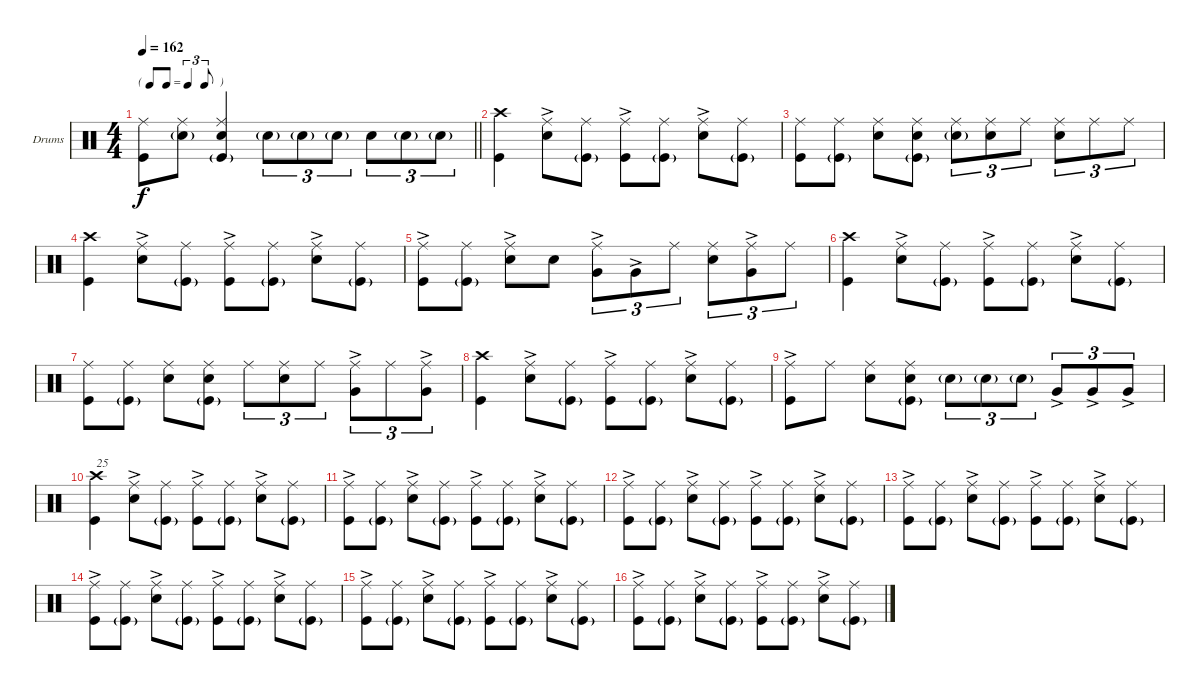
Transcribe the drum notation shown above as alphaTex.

\bracketExtendMode groupsimilarinstruments
\firstSystemTrackNameOrientation horizontal
\otherSystemsTrackNameOrientation horizontal
\track ("Drumkit" "Drums") {instrument percussion}
\staff {score}
\articulation defaults
\ts (4 4)
\tf triplet8th
\tempo 162
\clef neutral
\barLineRight lightlight
\ks c
("Kick (hit)" "Ride (middle)").8{dy f} ("Ride (middle)" "Snare (hit) 2"{g}).8 ("Snare (hit) 2" "Ride (middle)" "Kick (hit)"{g}).4 "Snare (hit) 2"{g}.8{tu (3 2)} "Snare (hit) 2"{g}.8{tu (3 2)} "Snare (hit) 2"{g}.8{tu (3 2)} "Snare (hit) 2".8{tu (3 2)} "Snare (hit) 2"{g}.8{tu (3 2)} "Snare (hit) 2"{g}.8{tu (3 2)} |
("Kick (hit)" "Crash high (hit)").4 ("Snare (hit) 2" "Ride (middle)"{ac}).8 ("Kick (hit)"{g} "Ride (middle)").8 ("Kick (hit)" "Ride (middle)"{ac}).8 ("Kick (hit)"{g} "Ride (middle)").8 ("Snare (hit) 2" "Ride (middle)"{ac}).8 ("Kick (hit)"{g} "Ride (middle)").8 |
("Kick (hit)" "Ride (middle)").8 ("Kick (hit)"{g} "Ride (middle)").8 ("Snare (hit) 2" "Ride (middle)").8 ("Kick (hit)"{g} "Ride (middle)" "Snare (hit) 2").8 ("Ride (middle)" "Snare (hit) 2"{g}).8{tu (3 2)} ("Ride (middle)" "Snare (hit) 2").8{tu (3 2)} "Ride (middle)".8{tu (3 2)} ("Snare (hit) 2" "Ride (middle)").8{tu (3 2)} "Ride (middle)".8{tu (3 2)} "Ride (middle)".8{tu (3 2)} |
("Kick (hit)" "Crash high (hit)").4 ("Snare (hit) 2" "Ride (middle)"{ac}).8 ("Kick (hit)"{g} "Ride (middle)").8 ("Kick (hit)" "Ride (middle)"{ac}).8 ("Kick (hit)"{g} "Ride (middle)").8 ("Snare (hit) 2" "Ride (middle)"{ac}).8 ("Kick (hit)"{g} "Ride (middle)").8 |
("Kick (hit)" "Ride (middle)"{ac}).8 ("Kick (hit)"{g} "Ride (middle)").8 ("Snare (hit) 2" "Ride (middle)"{ac}).8 "Snare (hit) 2".8 ("Ride (middle)" "Very Low Tom (hit)"{ac}).8{tu (3 2)} "Very Low Tom (hit)"{ac}.8{tu (3 2)} "Ride (middle)".8{tu (3 2)} ("Snare (hit) 2" "Ride (middle)").8{tu (3 2)} ("Ride (middle)" "Very Low Tom (hit)"{ac}).8{tu (3 2)} "Ride (middle)".8{tu (3 2)} |
("Kick (hit)" "Crash high (hit)").4 ("Snare (hit) 2" "Ride (middle)"{ac}).8 ("Kick (hit)"{g} "Ride (middle)").8 ("Kick (hit)" "Ride (middle)"{ac}).8 ("Kick (hit)"{g} "Ride (middle)").8 ("Snare (hit) 2" "Ride (middle)"{ac}).8 ("Kick (hit)"{g} "Ride (middle)").8 |
("Kick (hit)" "Ride (middle)").8 ("Kick (hit)"{g} "Ride (middle)").8 ("Snare (hit) 2" "Ride (middle)").8 ("Kick (hit)"{g} "Ride (middle)" "Snare (hit) 2").8 "Ride (middle)".8{tu (3 2)} ("Ride (middle)" "Snare (hit) 2").8{tu (3 2)} "Ride (middle)".8{tu (3 2)} ("Ride (middle)" "Very Low Tom (hit)"{ac}).8{tu (3 2)} "Ride (middle)".8{tu (3 2)} ("Ride (middle)" "Very Low Tom (hit)"{ac}).8{tu (3 2)} |
("Kick (hit)" "Crash high (hit)").4 ("Snare (hit) 2" "Ride (middle)"{ac}).8 ("Kick (hit)"{g} "Ride (middle)").8 ("Kick (hit)" "Ride (middle)"{ac}).8 ("Kick (hit)"{g} "Ride (middle)").8 ("Snare (hit) 2" "Ride (middle)"{ac}).8 ("Kick (hit)"{g} "Ride (middle)").8 |
("Kick (hit)" "Ride (middle)"{ac}).8 "Ride (middle)".8 ("Snare (hit) 2" "Ride (middle)").8 ("Kick (hit)"{g} "Ride (middle)" "Snare (hit) 2").8 "Snare (hit) 2"{g}.8{tu (3 2)} "Snare (hit) 2"{g}.8{tu (3 2)} "Snare (hit) 2"{g}.8{tu (3 2)} "Very Low Tom (hit)"{ac}.8{tu (3 2)} "Very Low Tom (hit)"{ac}.8{tu (3 2)} "Very Low Tom (hit)"{ac}.8{tu (3 2)} |
("Kick (hit)" "Crash high (hit)").4{txt "25"} ("Snare (hit) 2" "Ride (middle)"{ac}).8 ("Kick (hit)"{g} "Ride (middle)").8 ("Kick (hit)" "Ride (middle)"{ac}).8 ("Kick (hit)"{g} "Ride (middle)").8 ("Snare (hit) 2" "Ride (middle)"{ac}).8 ("Kick (hit)"{g} "Ride (middle)").8 |
("Kick (hit)" "Ride (middle)"{ac}).8 ("Kick (hit)"{g} "Ride (middle)").8 ("Snare (hit) 2" "Ride (middle)"{ac}).8 ("Kick (hit)"{g} "Ride (middle)").8 ("Kick (hit)" "Ride (middle)"{ac}).8 ("Kick (hit)"{g} "Ride (middle)").8 ("Snare (hit) 2" "Ride (middle)"{ac}).8 ("Kick (hit)"{g} "Ride (middle)").8 |
("Kick (hit)" "Ride (middle)"{ac}).8 ("Kick (hit)"{g} "Ride (middle)").8 ("Snare (hit) 2" "Ride (middle)"{ac}).8 ("Kick (hit)"{g} "Ride (middle)").8 ("Kick (hit)" "Ride (middle)"{ac}).8 ("Kick (hit)"{g} "Ride (middle)").8 ("Snare (hit) 2" "Ride (middle)"{ac}).8 ("Kick (hit)"{g} "Ride (middle)").8 |
("Kick (hit)" "Ride (middle)"{ac}).8 ("Kick (hit)"{g} "Ride (middle)").8 ("Snare (hit) 2" "Ride (middle)"{ac}).8 ("Kick (hit)"{g} "Ride (middle)").8 ("Kick (hit)" "Ride (middle)"{ac}).8 ("Kick (hit)"{g} "Ride (middle)").8 ("Snare (hit) 2" "Ride (middle)"{ac}).8 ("Kick (hit)"{g} "Ride (middle)").8 |
("Kick (hit)" "Ride (middle)"{ac}).8 ("Kick (hit)"{g} "Ride (middle)").8 ("Snare (hit) 2" "Ride (middle)"{ac}).8 ("Kick (hit)"{g} "Ride (middle)").8 ("Kick (hit)" "Ride (middle)"{ac}).8 ("Kick (hit)"{g} "Ride (middle)").8 ("Snare (hit) 2" "Ride (middle)"{ac}).8 ("Kick (hit)"{g} "Ride (middle)").8 |
("Kick (hit)" "Ride (middle)"{ac}).8 ("Kick (hit)"{g} "Ride (middle)").8 ("Snare (hit) 2" "Ride (middle)"{ac}).8 ("Kick (hit)"{g} "Ride (middle)").8 ("Kick (hit)" "Ride (middle)"{ac}).8 ("Kick (hit)"{g} "Ride (middle)").8 ("Snare (hit) 2" "Ride (middle)"{ac}).8 ("Kick (hit)"{g} "Ride (middle)").8 |
("Kick (hit)" "Ride (middle)"{ac}).8 ("Kick (hit)"{g} "Ride (middle)").8 ("Snare (hit) 2" "Ride (middle)"{ac}).8 ("Kick (hit)"{g} "Ride (middle)").8 ("Kick (hit)" "Ride (middle)"{ac}).8 ("Kick (hit)"{g} "Ride (middle)").8 ("Snare (hit) 2" "Ride (middle)"{ac}).8 ("Kick (hit)"{g} "Ride (middle)").8
